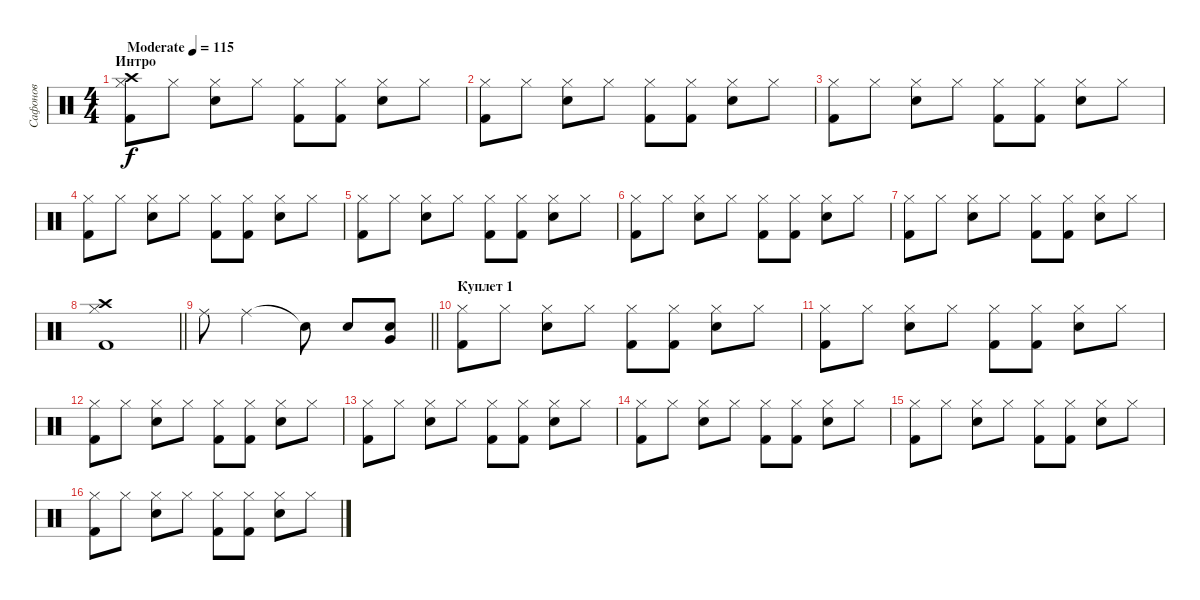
\track ("Сафонов" "Сафонов") {instrument percussion}
\staff {score}
\articulation defaults
\ts (4 4)
\section ("" "Интро")
\tempo (115 "Moderate")
\clef neutral
\ks c
("Crash high (hit)" "Hi-Hat (closed)" "Kick (hit) 2").8{dy f} "Hi-Hat (closed)".8 ("Hi-Hat (closed)" "Electric Snare (hit)").8 "Hi-Hat (closed)".8 ("Hi-Hat (closed)" "Kick (hit) 2").8 ("Hi-Hat (closed)" "Kick (hit) 2").8 ("Hi-Hat (closed)" "Electric Snare (hit)").8 "Hi-Hat (closed)".8 |
("Hi-Hat (closed)" "Kick (hit) 2").8 "Hi-Hat (closed)".8 ("Hi-Hat (closed)" "Electric Snare (hit)").8 "Hi-Hat (closed)".8 ("Hi-Hat (closed)" "Kick (hit) 2").8 ("Hi-Hat (closed)" "Kick (hit) 2").8 ("Hi-Hat (closed)" "Electric Snare (hit)").8 "Hi-Hat (closed)".8 |
("Hi-Hat (closed)" "Kick (hit) 2").8 "Hi-Hat (closed)".8 ("Hi-Hat (closed)" "Electric Snare (hit)").8 "Hi-Hat (closed)".8 ("Hi-Hat (closed)" "Kick (hit) 2").8 ("Hi-Hat (closed)" "Kick (hit) 2").8 ("Hi-Hat (closed)" "Electric Snare (hit)").8 "Hi-Hat (closed)".8 |
("Hi-Hat (closed)" "Kick (hit) 2").8 "Hi-Hat (closed)".8 ("Hi-Hat (closed)" "Electric Snare (hit)").8 "Hi-Hat (closed)".8 ("Hi-Hat (closed)" "Kick (hit) 2").8 ("Hi-Hat (closed)" "Kick (hit) 2").8 ("Hi-Hat (closed)" "Electric Snare (hit)").8 "Hi-Hat (closed)".8 |
("Hi-Hat (closed)" "Kick (hit) 2").8 "Hi-Hat (closed)".8 ("Hi-Hat (closed)" "Electric Snare (hit)").8 "Hi-Hat (closed)".8 ("Hi-Hat (closed)" "Kick (hit) 2").8 ("Hi-Hat (closed)" "Kick (hit) 2").8 ("Hi-Hat (closed)" "Electric Snare (hit)").8 "Hi-Hat (closed)".8 |
("Hi-Hat (closed)" "Kick (hit) 2").8 "Hi-Hat (closed)".8 ("Hi-Hat (closed)" "Electric Snare (hit)").8 "Hi-Hat (closed)".8 ("Hi-Hat (closed)" "Kick (hit) 2").8 ("Hi-Hat (closed)" "Kick (hit) 2").8 ("Hi-Hat (closed)" "Electric Snare (hit)").8 "Hi-Hat (closed)".8 |
("Hi-Hat (closed)" "Kick (hit) 2").8 "Hi-Hat (closed)".8 ("Hi-Hat (closed)" "Electric Snare (hit)").8 "Hi-Hat (closed)".8 ("Hi-Hat (closed)" "Kick (hit) 2").8 ("Hi-Hat (closed)" "Kick (hit) 2").8 ("Hi-Hat (closed)" "Electric Snare (hit)").8 "Hi-Hat (closed)".8 |
\barLineRight lightlight
("Crash high (hit)" "Hi-Hat (closed)" "Kick (hit) 2").1 |
\section ("" "")
\barLineRight lightlight "Ride (middle)".8 "Ride (middle)".2 "Snare (hit)"{t}.8 "Electric Snare (hit)".8
("Very Low Tom (hit)" "Electric Snare (hit)").8 |
\section ("" "Куплет 1")
("Hi-Hat (closed)" "Kick (hit) 2").8 "Hi-Hat (closed)".8 ("Hi-Hat (closed)" "Electric Snare (hit)").8 "Hi-Hat (closed)".8 ("Hi-Hat (closed)" "Kick (hit) 2").8 ("Hi-Hat (closed)" "Kick (hit) 2").8 ("Hi-Hat (closed)" "Electric Snare (hit)").8 "Hi-Hat (closed)".8 |
("Hi-Hat (closed)" "Kick (hit) 2").8 "Hi-Hat (closed)".8 ("Hi-Hat (closed)" "Electric Snare (hit)").8 "Hi-Hat (closed)".8 ("Hi-Hat (closed)" "Kick (hit) 2").8 ("Hi-Hat (closed)" "Kick (hit) 2").8 ("Hi-Hat (closed)" "Electric Snare (hit)").8 "Hi-Hat (closed)".8 |
("Hi-Hat (closed)" "Kick (hit) 2").8 "Hi-Hat (closed)".8 ("Hi-Hat (closed)" "Electric Snare (hit)").8 "Hi-Hat (closed)".8 ("Hi-Hat (closed)" "Kick (hit) 2").8 ("Hi-Hat (closed)" "Kick (hit) 2").8 ("Hi-Hat (closed)" "Electric Snare (hit)").8 "Hi-Hat (closed)".8 |
("Hi-Hat (closed)" "Kick (hit) 2").8 "Hi-Hat (closed)".8 ("Hi-Hat (closed)" "Electric Snare (hit)").8 "Hi-Hat (closed)".8 ("Hi-Hat (closed)" "Kick (hit) 2").8 ("Hi-Hat (closed)" "Kick (hit) 2").8 ("Hi-Hat (closed)" "Electric Snare (hit)").8 "Hi-Hat (closed)".8 |
("Hi-Hat (closed)" "Kick (hit) 2").8 "Hi-Hat (closed)".8 ("Hi-Hat (closed)" "Electric Snare (hit)").8 "Hi-Hat (closed)".8 ("Hi-Hat (closed)" "Kick (hit) 2").8 ("Hi-Hat (closed)" "Kick (hit) 2").8 ("Hi-Hat (closed)" "Electric Snare (hit)").8 "Hi-Hat (closed)".8 |
("Hi-Hat (closed)" "Kick (hit) 2").8 "Hi-Hat (closed)".8 ("Hi-Hat (closed)" "Electric Snare (hit)").8 "Hi-Hat (closed)".8 ("Hi-Hat (closed)" "Kick (hit) 2").8 ("Hi-Hat (closed)" "Kick (hit) 2").8 ("Hi-Hat (closed)" "Electric Snare (hit)").8 "Hi-Hat (closed)".8 |
("Hi-Hat (closed)" "Kick (hit) 2").8 "Hi-Hat (closed)".8 ("Hi-Hat (closed)" "Electric Snare (hit)").8 "Hi-Hat (closed)".8 ("Hi-Hat (closed)" "Kick (hit) 2").8 ("Hi-Hat (closed)" "Kick (hit) 2").8 ("Hi-Hat (closed)" "Electric Snare (hit)").8 "Hi-Hat (closed)".8
